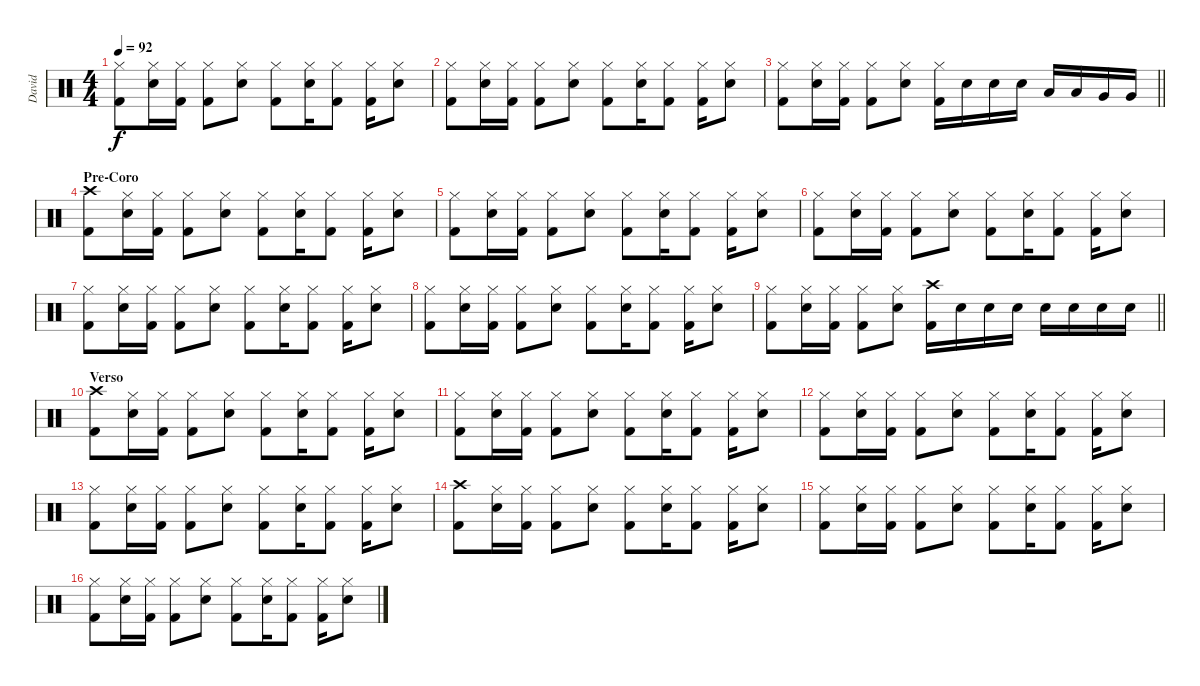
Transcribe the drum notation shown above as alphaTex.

\track ("David" "David") {instrument percussion}
\staff {score}
\articulation defaults
\ts (4 4)
\tempo 92
\clef neutral
\ks c
("Hi-Hat (closed)" "Kick (hit) 2").8{dy f} ("Hi-Hat (closed)" "Snare (hit) 2").16 ("Hi-Hat (closed)" "Kick (hit) 2").16 ("Hi-Hat (closed)" "Kick (hit) 2").8 ("Hi-Hat (closed)" "Snare (hit) 2").8 ("Hi-Hat (closed)" "Kick (hit) 2").8 ("Hi-Hat (closed)" "Snare (hit) 2").16 ("Hi-Hat (closed)" "Kick (hit) 2").8 ("Hi-Hat (closed)" "Kick (hit) 2").16 ("Hi-Hat (closed)" "Snare (hit) 2").8 |
("Hi-Hat (closed)" "Kick (hit) 2").8 ("Hi-Hat (closed)" "Snare (hit) 2").16 ("Hi-Hat (closed)" "Kick (hit) 2").16 ("Hi-Hat (closed)" "Kick (hit) 2").8 ("Hi-Hat (closed)" "Snare (hit) 2").8 ("Hi-Hat (closed)" "Kick (hit) 2").8 ("Hi-Hat (closed)" "Snare (hit) 2").16 ("Hi-Hat (closed)" "Kick (hit) 2").8 ("Hi-Hat (closed)" "Kick (hit) 2").16 ("Hi-Hat (closed)" "Snare (hit) 2").8 |
\barLineRight lightlight
("Hi-Hat (closed)" "Kick (hit) 2").8 ("Hi-Hat (closed)" "Snare (hit) 2").16 ("Hi-Hat (closed)" "Kick (hit) 2").16 ("Hi-Hat (closed)" "Kick (hit) 2").8 ("Hi-Hat (closed)" "Snare (hit) 2").8 ("Hi-Hat (closed)" "Kick (hit) 2").16 "Snare (hit) 2".16 "Snare (hit) 2".16 "Snare (hit) 2".16 "Low Tom (hit)".16 "Low Tom (hit)".16 "Very Low Tom (hit)".16 "Very Low Tom (hit)".16 |
\section ("" "Pre-Coro")
("Crash high (hit)" "Kick (hit) 2").8 ("Hi-Hat (closed)" "Snare (hit) 2").16 ("Hi-Hat (closed)" "Kick (hit) 2").16 ("Hi-Hat (closed)" "Kick (hit) 2").8 ("Hi-Hat (closed)" "Snare (hit) 2").8 ("Hi-Hat (closed)" "Kick (hit) 2").8 ("Hi-Hat (closed)" "Snare (hit) 2").16 ("Hi-Hat (closed)" "Kick (hit) 2").8 ("Hi-Hat (closed)" "Kick (hit) 2").16 ("Hi-Hat (closed)" "Snare (hit) 2").8 |
("Hi-Hat (closed)" "Kick (hit) 2").8 ("Hi-Hat (closed)" "Snare (hit) 2").16 ("Hi-Hat (closed)" "Kick (hit) 2").16 ("Hi-Hat (closed)" "Kick (hit) 2").8 ("Hi-Hat (closed)" "Snare (hit) 2").8 ("Hi-Hat (closed)" "Kick (hit) 2").8 ("Hi-Hat (closed)" "Snare (hit) 2").16 ("Hi-Hat (closed)" "Kick (hit) 2").8 ("Hi-Hat (closed)" "Kick (hit) 2").16 ("Hi-Hat (closed)" "Snare (hit) 2").8 |
("Hi-Hat (closed)" "Kick (hit) 2").8 ("Hi-Hat (closed)" "Snare (hit) 2").16 ("Hi-Hat (closed)" "Kick (hit) 2").16 ("Hi-Hat (closed)" "Kick (hit) 2").8 ("Hi-Hat (closed)" "Snare (hit) 2").8 ("Hi-Hat (closed)" "Kick (hit) 2").8 ("Hi-Hat (closed)" "Snare (hit) 2").16 ("Hi-Hat (closed)" "Kick (hit) 2").8 ("Hi-Hat (closed)" "Kick (hit) 2").16 ("Hi-Hat (closed)" "Snare (hit) 2").8 |
("Hi-Hat (closed)" "Kick (hit) 2").8 ("Hi-Hat (closed)" "Snare (hit) 2").16 ("Hi-Hat (closed)" "Kick (hit) 2").16 ("Hi-Hat (closed)" "Kick (hit) 2").8 ("Hi-Hat (closed)" "Snare (hit) 2").8 ("Hi-Hat (closed)" "Kick (hit) 2").8 ("Hi-Hat (closed)" "Snare (hit) 2").16 ("Hi-Hat (closed)" "Kick (hit) 2").8 ("Hi-Hat (closed)" "Kick (hit) 2").16 ("Hi-Hat (closed)" "Snare (hit) 2").8 |
("Hi-Hat (closed)" "Kick (hit) 2").8 ("Hi-Hat (closed)" "Snare (hit) 2").16 ("Hi-Hat (closed)" "Kick (hit) 2").16 ("Hi-Hat (closed)" "Kick (hit) 2").8 ("Hi-Hat (closed)" "Snare (hit) 2").8 ("Hi-Hat (closed)" "Kick (hit) 2").8 ("Hi-Hat (closed)" "Snare (hit) 2").16 ("Hi-Hat (closed)" "Kick (hit) 2").8 ("Hi-Hat (closed)" "Kick (hit) 2").16 ("Hi-Hat (closed)" "Snare (hit) 2").8 |
\barLineRight lightlight
("Hi-Hat (closed)" "Kick (hit) 2").8 ("Hi-Hat (closed)" "Snare (hit) 2").16 ("Hi-Hat (closed)" "Kick (hit) 2").16 ("Hi-Hat (closed)" "Kick (hit) 2").8 ("Hi-Hat (closed)" "Snare (hit) 2").8 ("Crash high (hit)" "Kick (hit) 2").16 "Snare (hit) 2".16 "Snare (hit) 2".16 "Snare (hit) 2".16 "Snare (hit) 2".16 "Snare (hit) 2".16 "Snare (hit) 2".16 "Snare (hit) 2".16 |
\section ("" "Verso")
("Crash high (hit)" "Kick (hit) 2").8 ("Hi-Hat (closed)" "Snare (hit) 2").16 ("Hi-Hat (closed)" "Kick (hit) 2").16 ("Hi-Hat (closed)" "Kick (hit) 2").8 ("Hi-Hat (closed)" "Snare (hit) 2").8 ("Hi-Hat (closed)" "Kick (hit) 2").8 ("Hi-Hat (closed)" "Snare (hit) 2").16 ("Hi-Hat (closed)" "Kick (hit) 2").8 ("Hi-Hat (closed)" "Kick (hit) 2").16 ("Hi-Hat (closed)" "Snare (hit) 2").8 |
("Hi-Hat (closed)" "Kick (hit) 2").8 ("Hi-Hat (closed)" "Snare (hit) 2").16 ("Hi-Hat (closed)" "Kick (hit) 2").16 ("Hi-Hat (closed)" "Kick (hit) 2").8 ("Hi-Hat (closed)" "Snare (hit) 2").8 ("Hi-Hat (closed)" "Kick (hit) 2").8 ("Hi-Hat (closed)" "Snare (hit) 2").16 ("Hi-Hat (closed)" "Kick (hit) 2").8 ("Hi-Hat (closed)" "Kick (hit) 2").16 ("Hi-Hat (closed)" "Snare (hit) 2").8 |
("Hi-Hat (closed)" "Kick (hit) 2").8 ("Hi-Hat (closed)" "Snare (hit) 2").16 ("Hi-Hat (closed)" "Kick (hit) 2").16 ("Hi-Hat (closed)" "Kick (hit) 2").8 ("Hi-Hat (closed)" "Snare (hit) 2").8 ("Hi-Hat (closed)" "Kick (hit) 2").8 ("Hi-Hat (closed)" "Snare (hit) 2").16 ("Hi-Hat (closed)" "Kick (hit) 2").8 ("Hi-Hat (closed)" "Kick (hit) 2").16 ("Hi-Hat (closed)" "Snare (hit) 2").8 |
("Hi-Hat (closed)" "Kick (hit) 2").8 ("Hi-Hat (closed)" "Snare (hit) 2").16 ("Hi-Hat (closed)" "Kick (hit) 2").16 ("Hi-Hat (closed)" "Kick (hit) 2").8 ("Hi-Hat (closed)" "Snare (hit) 2").8 ("Hi-Hat (closed)" "Kick (hit) 2").8 ("Hi-Hat (closed)" "Snare (hit) 2").16 ("Hi-Hat (closed)" "Kick (hit) 2").8 ("Hi-Hat (closed)" "Kick (hit) 2").16 ("Hi-Hat (closed)" "Snare (hit) 2").8 |
("Crash high (hit)" "Kick (hit) 2").8 ("Hi-Hat (closed)" "Snare (hit) 2").16 ("Hi-Hat (closed)" "Kick (hit) 2").16 ("Hi-Hat (closed)" "Kick (hit) 2").8 ("Hi-Hat (closed)" "Snare (hit) 2").8 ("Hi-Hat (closed)" "Kick (hit) 2").8 ("Hi-Hat (closed)" "Snare (hit) 2").16 ("Hi-Hat (closed)" "Kick (hit) 2").8 ("Hi-Hat (closed)" "Kick (hit) 2").16 ("Hi-Hat (closed)" "Snare (hit) 2").8 |
("Hi-Hat (closed)" "Kick (hit) 2").8 ("Hi-Hat (closed)" "Snare (hit) 2").16 ("Hi-Hat (closed)" "Kick (hit) 2").16 ("Hi-Hat (closed)" "Kick (hit) 2").8 ("Hi-Hat (closed)" "Snare (hit) 2").8 ("Hi-Hat (closed)" "Kick (hit) 2").8 ("Hi-Hat (closed)" "Snare (hit) 2").16 ("Hi-Hat (closed)" "Kick (hit) 2").8 ("Hi-Hat (closed)" "Kick (hit) 2").16 ("Hi-Hat (closed)" "Snare (hit) 2").8 |
("Hi-Hat (closed)" "Kick (hit) 2").8 ("Hi-Hat (closed)" "Snare (hit) 2").16 ("Hi-Hat (closed)" "Kick (hit) 2").16 ("Hi-Hat (closed)" "Kick (hit) 2").8 ("Hi-Hat (closed)" "Snare (hit) 2").8 ("Hi-Hat (closed)" "Kick (hit) 2").8 ("Hi-Hat (closed)" "Snare (hit) 2").16 ("Hi-Hat (closed)" "Kick (hit) 2").8 ("Hi-Hat (closed)" "Kick (hit) 2").16 ("Hi-Hat (closed)" "Snare (hit) 2").8
